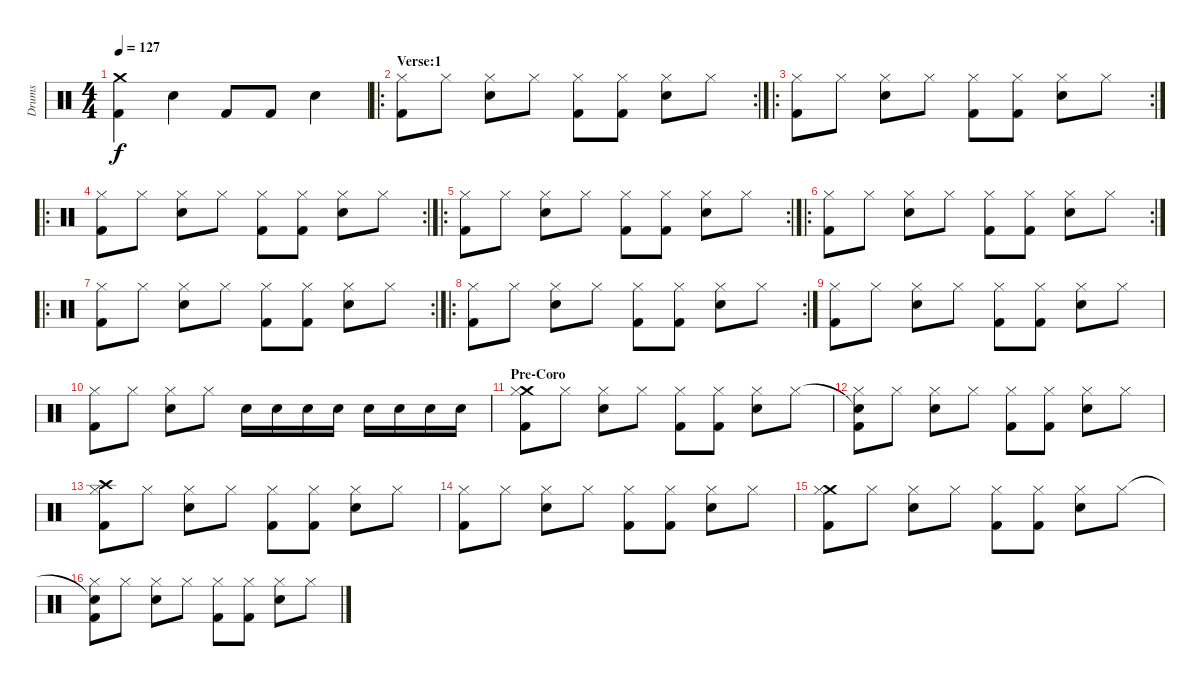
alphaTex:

\track ("Drums" "Drums") {instrument percussion}
\staff {score}
\articulation defaults
\ts (4 4)
\tempo 127
\clef neutral
\ks c
("Crash medium (hit)"{t} "Kick (hit) 2").4{dy f} "Electric Snare (hit)".4 "Kick (hit) 2".8 "Kick (hit) 2".8 "Electric Snare (hit)".4 |
\ro
\rc 2
\section ("" "Verse:1")
("Hi-Hat (closed)" "Kick (hit) 2").8 "Hi-Hat (closed)".8 ("Hi-Hat (closed)" "Electric Snare (hit)").8 "Hi-Hat (closed)".8 ("Hi-Hat (closed)" "Kick (hit) 2").8 ("Hi-Hat (closed)" "Kick (hit) 2").8 ("Hi-Hat (closed)" "Electric Snare (hit)").8 "Hi-Hat (closed)".8 |
\ro
\rc 2
("Hi-Hat (closed)" "Kick (hit) 2").8 "Hi-Hat (closed)".8 ("Hi-Hat (closed)" "Electric Snare (hit)").8 "Hi-Hat (closed)".8 ("Hi-Hat (closed)" "Kick (hit) 2").8 ("Hi-Hat (closed)" "Kick (hit) 2").8 ("Hi-Hat (closed)" "Electric Snare (hit)").8 "Hi-Hat (closed)".8 |
\ro
\rc 2
("Hi-Hat (closed)" "Kick (hit) 2").8 "Hi-Hat (closed)".8 ("Hi-Hat (closed)" "Electric Snare (hit)").8 "Hi-Hat (closed)".8 ("Hi-Hat (closed)" "Kick (hit) 2").8 ("Hi-Hat (closed)" "Kick (hit) 2").8 ("Hi-Hat (closed)" "Electric Snare (hit)").8 "Hi-Hat (closed)".8 |
\ro
\rc 2
("Hi-Hat (closed)" "Kick (hit) 2").8 "Hi-Hat (closed)".8 ("Hi-Hat (closed)" "Electric Snare (hit)").8 "Hi-Hat (closed)".8 ("Hi-Hat (closed)" "Kick (hit) 2").8 ("Hi-Hat (closed)" "Kick (hit) 2").8 ("Hi-Hat (closed)" "Electric Snare (hit)").8 "Hi-Hat (closed)".8 |
\ro
\rc 2
("Hi-Hat (closed)" "Kick (hit) 2").8 "Hi-Hat (closed)".8 ("Hi-Hat (closed)" "Electric Snare (hit)").8 "Hi-Hat (closed)".8 ("Hi-Hat (closed)" "Kick (hit) 2").8 ("Hi-Hat (closed)" "Kick (hit) 2").8 ("Hi-Hat (closed)" "Electric Snare (hit)").8 "Hi-Hat (closed)".8 |
\ro
\rc 2
("Hi-Hat (closed)" "Kick (hit) 2").8 "Hi-Hat (closed)".8 ("Hi-Hat (closed)" "Electric Snare (hit)").8 "Hi-Hat (closed)".8 ("Hi-Hat (closed)" "Kick (hit) 2").8 ("Hi-Hat (closed)" "Kick (hit) 2").8 ("Hi-Hat (closed)" "Electric Snare (hit)").8 "Hi-Hat (closed)".8 |
\ro
\rc 2
("Hi-Hat (closed)" "Kick (hit) 2").8 "Hi-Hat (closed)".8 ("Hi-Hat (closed)" "Electric Snare (hit)").8 "Hi-Hat (closed)".8 ("Hi-Hat (closed)" "Kick (hit) 2").8 ("Hi-Hat (closed)" "Kick (hit) 2").8 ("Hi-Hat (closed)" "Electric Snare (hit)").8 "Hi-Hat (closed)".8 |
("Hi-Hat (closed)" "Kick (hit) 2").8 "Hi-Hat (closed)".8 ("Hi-Hat (closed)" "Electric Snare (hit)").8 "Hi-Hat (closed)".8 ("Hi-Hat (closed)" "Kick (hit) 2").8 ("Hi-Hat (closed)" "Kick (hit) 2").8 ("Hi-Hat (closed)" "Electric Snare (hit)").8 "Hi-Hat (closed)".8 |
("Hi-Hat (closed)" "Kick (hit) 2").8 "Hi-Hat (closed)".8 ("Hi-Hat (closed)" "Electric Snare (hit)").8 "Hi-Hat (closed)".8 "Electric Snare (hit)".16 "Electric Snare (hit)".16 "Electric Snare (hit)".16 "Electric Snare (hit)".16 "Electric Snare (hit)".16 "Electric Snare (hit)".16 "Electric Snare (hit)".16 "Electric Snare (hit)".16 |
\section ("" "Pre-Coro")
("Crash medium (hit)" "Hi-Hat (closed)" "Kick (hit) 2").8 "Hi-Hat (closed)".8 ("Hi-Hat (closed)" "Electric Snare (hit)").8 "Hi-Hat (closed)".8 ("Hi-Hat (closed)" "Kick (hit) 2").8 ("Hi-Hat (closed)" "Kick (hit) 2").8 ("Hi-Hat (closed)" "Electric Snare (hit)").8 "Hi-Hat (closed)".8 |
("Snare (hit)"{t} "Hi-Hat (closed)" "Kick (hit) 2").8 "Hi-Hat (closed)".8 ("Hi-Hat (closed)" "Electric Snare (hit)").8 "Hi-Hat (closed)".8 ("Hi-Hat (closed)" "Kick (hit) 2").8 ("Hi-Hat (closed)" "Kick (hit) 2").8 ("Hi-Hat (closed)" "Electric Snare (hit)").8 "Hi-Hat (closed)".8 |
("Crash high (hit)" "Hi-Hat (closed)" "Kick (hit) 2").8 "Hi-Hat (closed)".8 ("Hi-Hat (closed)" "Electric Snare (hit)").8 "Hi-Hat (closed)".8 ("Hi-Hat (closed)" "Kick (hit) 2").8 ("Hi-Hat (closed)" "Kick (hit) 2").8 ("Hi-Hat (closed)" "Electric Snare (hit)").8 "Hi-Hat (closed)".8 |
("Hi-Hat (closed)" "Kick (hit) 2").8 "Hi-Hat (closed)".8 ("Hi-Hat (closed)" "Electric Snare (hit)").8 "Hi-Hat (closed)".8 ("Hi-Hat (closed)" "Kick (hit) 2").8 ("Hi-Hat (closed)" "Kick (hit) 2").8 ("Hi-Hat (closed)" "Electric Snare (hit)").8 "Hi-Hat (closed)".8 |
("Crash medium (hit)" "Hi-Hat (closed)" "Kick (hit) 2").8 "Hi-Hat (closed)".8 ("Hi-Hat (closed)" "Electric Snare (hit)").8 "Hi-Hat (closed)".8 ("Hi-Hat (closed)" "Kick (hit) 2").8 ("Hi-Hat (closed)" "Kick (hit) 2").8 ("Hi-Hat (closed)" "Electric Snare (hit)").8 "Hi-Hat (closed)".8 |
("Snare (hit)"{t} "Hi-Hat (closed)" "Kick (hit) 2").8 "Hi-Hat (closed)".8 ("Hi-Hat (closed)" "Electric Snare (hit)").8 "Hi-Hat (closed)".8 ("Hi-Hat (closed)" "Kick (hit) 2").8 ("Hi-Hat (closed)" "Kick (hit) 2").8 ("Hi-Hat (closed)" "Electric Snare (hit)").8 "Hi-Hat (closed)".8
